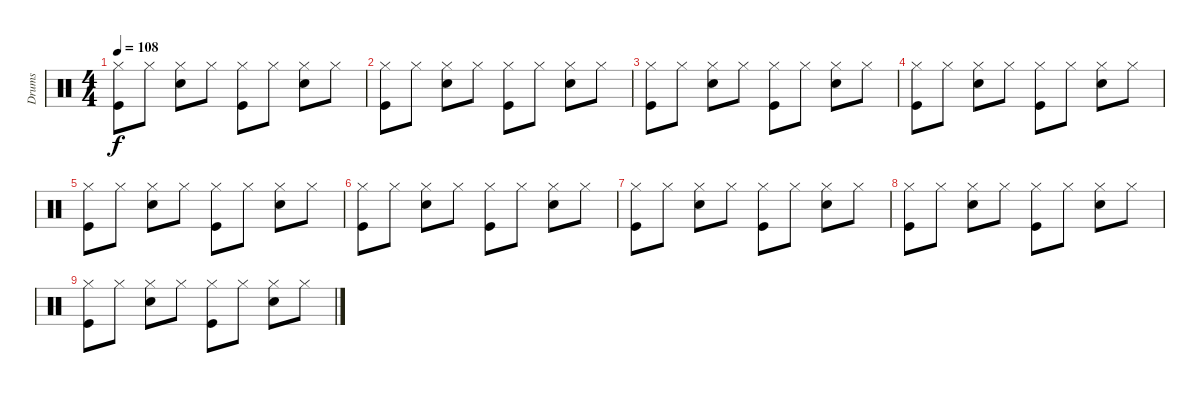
\track ("Drums" "Drums") {instrument percussion}
\staff {score}
\articulation defaults
\ts (4 4)
\tempo 108
\clef neutral
\ks c
("Kick (hit)" "Hi-Hat (closed)").8{dy f} "Hi-Hat (closed)".8 ("Snare (hit) 2" "Hi-Hat (closed)").8 "Hi-Hat (closed)".8 ("Kick (hit)" "Hi-Hat (closed)").8 "Hi-Hat (closed)".8 ("Hi-Hat (closed)" "Snare (hit) 2").8 "Hi-Hat (closed)".8 |
("Kick (hit)" "Hi-Hat (closed)").8 "Hi-Hat (closed)".8 ("Snare (hit) 2" "Hi-Hat (closed)").8 "Hi-Hat (closed)".8 ("Kick (hit)" "Hi-Hat (closed)").8 "Hi-Hat (closed)".8 ("Hi-Hat (closed)" "Snare (hit) 2").8 "Hi-Hat (closed)".8 |
("Kick (hit)" "Hi-Hat (closed)").8 "Hi-Hat (closed)".8 ("Snare (hit) 2" "Hi-Hat (closed)").8 "Hi-Hat (closed)".8 ("Kick (hit)" "Hi-Hat (closed)").8 "Hi-Hat (closed)".8 ("Hi-Hat (closed)" "Snare (hit) 2").8 "Hi-Hat (closed)".8 |
("Kick (hit)" "Hi-Hat (closed)").8 "Hi-Hat (closed)".8 ("Snare (hit) 2" "Hi-Hat (closed)").8 "Hi-Hat (closed)".8 ("Kick (hit)" "Hi-Hat (closed)").8 "Hi-Hat (closed)".8 ("Hi-Hat (closed)" "Snare (hit) 2").8 "Hi-Hat (closed)".8 |
("Kick (hit)" "Hi-Hat (closed)").8 "Hi-Hat (closed)".8 ("Snare (hit) 2" "Hi-Hat (closed)").8 "Hi-Hat (closed)".8 ("Kick (hit)" "Hi-Hat (closed)").8 "Hi-Hat (closed)".8 ("Hi-Hat (closed)" "Snare (hit) 2").8 "Hi-Hat (closed)".8 |
("Kick (hit)" "Hi-Hat (closed)").8 "Hi-Hat (closed)".8 ("Snare (hit) 2" "Hi-Hat (closed)").8 "Hi-Hat (closed)".8 ("Kick (hit)" "Hi-Hat (closed)").8 "Hi-Hat (closed)".8 ("Hi-Hat (closed)" "Snare (hit) 2").8 "Hi-Hat (closed)".8 |
("Kick (hit)" "Hi-Hat (closed)").8 "Hi-Hat (closed)".8 ("Snare (hit) 2" "Hi-Hat (closed)").8 "Hi-Hat (closed)".8 ("Kick (hit)" "Hi-Hat (closed)").8 "Hi-Hat (closed)".8 ("Hi-Hat (closed)" "Snare (hit) 2").8 "Hi-Hat (closed)".8 |
("Kick (hit)" "Hi-Hat (closed)").8 "Hi-Hat (closed)".8 ("Snare (hit) 2" "Hi-Hat (closed)").8 "Hi-Hat (closed)".8 ("Kick (hit)" "Hi-Hat (closed)").8 "Hi-Hat (closed)".8 ("Hi-Hat (closed)" "Snare (hit) 2").8 "Hi-Hat (closed)".8 |
("Kick (hit)" "Hi-Hat (closed)").8 "Hi-Hat (closed)".8 ("Snare (hit) 2" "Hi-Hat (closed)").8 "Hi-Hat (closed)".8 ("Kick (hit)" "Hi-Hat (closed)").8 "Hi-Hat (closed)".8 ("Hi-Hat (closed)" "Snare (hit) 2").8 "Hi-Hat (closed)".8
